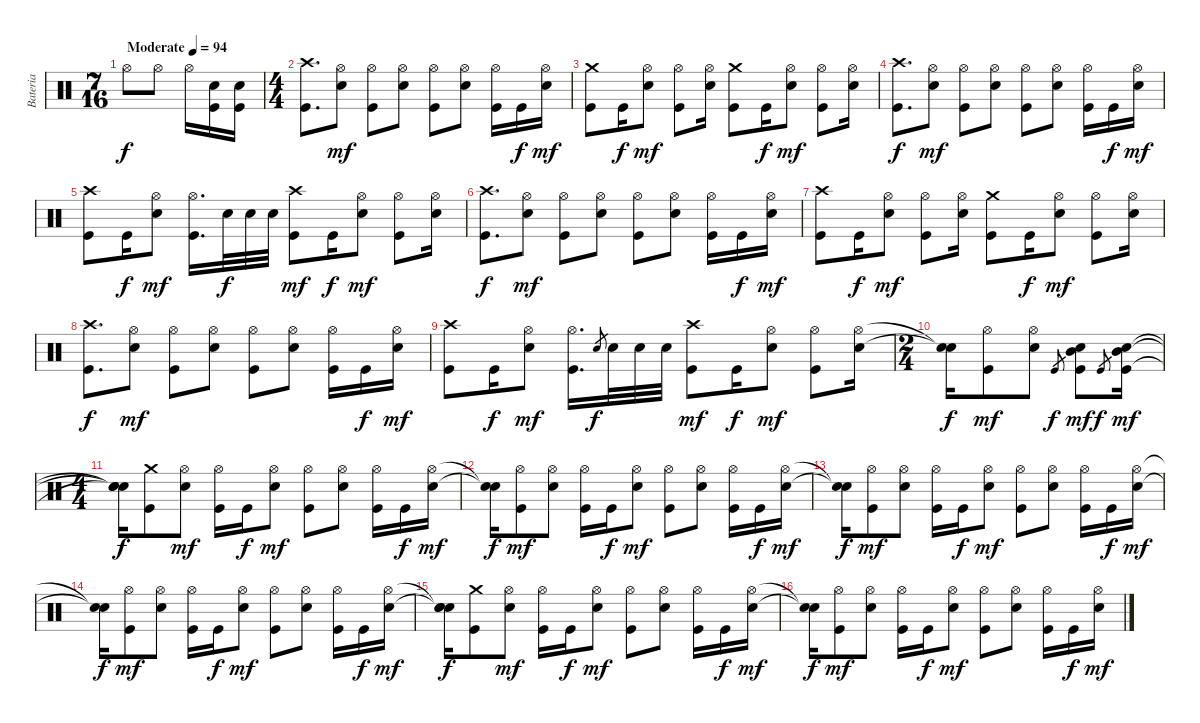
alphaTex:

\track ("Bateria" "Bateria") {instrument percussion}
\staff {score}
\articulation defaults
\ts (7 16)
\tempo (94 "Moderate")
\clef neutral
\ks c "Hi-Hat (open)".8{dy f} "Hi-Hat (open)".8 "Hi-Hat (open)".16
("Snare (hit) 2" "Kick (hit)").16 ("Snare (hit) 2" "Kick (hit)").16 |
\ts (4 4)
("Crash high (hit)" "Kick (hit)").8{d} ("Hi-Hat (open)" "Snare (hit) 2").8{dy mf} ("Hi-Hat (open)" "Kick (hit)").8 ("Hi-Hat (open)" "Snare (hit) 2").8 ("Hi-Hat (open)" "Kick (hit)").8 ("Hi-Hat (open)" "Snare (hit) 2").8 ("Hi-Hat (open)" "Kick (hit)").16 "Kick (hit)".16{dy f} ("Hi-Hat (open)" "Snare (hit) 2").16{dy mf} |
("Crash medium (hit)" "Kick (hit)").8 "Kick (hit)".16{dy f} ("Hi-Hat (open)" "Snare (hit) 2").8{dy mf} ("Hi-Hat (open)" "Kick (hit)").8 ("Hi-Hat (open)" "Snare (hit) 2").16 ("Crash medium (hit)" "Kick (hit)").8 "Kick (hit)".16{dy f} ("Hi-Hat (open)" "Snare (hit) 2").8{dy mf} ("Hi-Hat (open)" "Kick (hit)").8 ("Hi-Hat (open)" "Snare (hit) 2").16 |
("Crash high (hit)" "Kick (hit)").8{d dy f} ("Hi-Hat (open)" "Snare (hit) 2").8{dy mf} ("Hi-Hat (open)" "Kick (hit)").8 ("Hi-Hat (open)" "Snare (hit) 2").8 ("Hi-Hat (open)" "Kick (hit)").8 ("Hi-Hat (open)" "Snare (hit) 2").8 ("Hi-Hat (open)" "Kick (hit)").16 "Kick (hit)".16{dy f} ("Hi-Hat (open)" "Snare (hit) 2").16{dy mf} |
("Crash high (hit)" "Kick (hit)").8 "Kick (hit)".16{dy f} ("Hi-Hat (open)" "Snare (hit) 2").8{dy mf} ("Hi-Hat (open)" "Kick (hit)").16{d} "Snare (hit) 2".32{dy f} "Snare (hit) 2".32 "Snare (hit) 2".32 ("Crash high (hit)" "Kick (hit)").8{dy mf} "Kick (hit)".16{dy f} ("Hi-Hat (open)" "Snare (hit) 2").8{dy mf} ("Hi-Hat (open)" "Kick (hit)").8 ("Hi-Hat (open)" "Snare (hit) 2").16 |
("Crash high (hit)" "Kick (hit)").8{d dy f} ("Hi-Hat (open)" "Snare (hit) 2").8{dy mf} ("Hi-Hat (open)" "Kick (hit)").8 ("Hi-Hat (open)" "Snare (hit) 2").8 ("Hi-Hat (open)" "Kick (hit)").8 ("Hi-Hat (open)" "Snare (hit) 2").8 ("Hi-Hat (open)" "Kick (hit)").16 "Kick (hit)".16{dy f} ("Hi-Hat (open)" "Snare (hit) 2").16{dy mf} |
("Crash high (hit)" "Kick (hit)").8 "Kick (hit)".16{dy f} ("Hi-Hat (open)" "Snare (hit) 2").8{dy mf} ("Hi-Hat (open)" "Kick (hit)").8 ("Hi-Hat (open)" "Snare (hit) 2").16 ("Crash medium (hit)" "Kick (hit)").8 "Kick (hit)".16{dy f} ("Hi-Hat (open)" "Snare (hit) 2").8{dy mf} ("Hi-Hat (open)" "Kick (hit)").8 ("Hi-Hat (open)" "Snare (hit) 2").16 |
("Crash high (hit)" "Kick (hit)").8{d dy f} ("Hi-Hat (open)" "Snare (hit) 2").8{dy mf} ("Hi-Hat (open)" "Kick (hit)").8 ("Hi-Hat (open)" "Snare (hit) 2").8 ("Hi-Hat (open)" "Kick (hit)").8 ("Hi-Hat (open)" "Snare (hit) 2").8 ("Hi-Hat (open)" "Kick (hit)").16 "Kick (hit)".16{dy f} ("Hi-Hat (open)" "Snare (hit) 2").16{dy mf} |
("Crash high (hit)" "Kick (hit)").8 "Kick (hit)".16{dy f} ("Hi-Hat (open)" "Snare (hit) 2").8{dy mf} ("Hi-Hat (open)" "Kick (hit)").16{d} "Snare (hit) 2".8{gr dy f} "Snare (hit) 2".32 "Snare (hit) 2".32 "Snare (hit) 2".32 ("Crash high (hit)" "Kick (hit)").8{dy mf} "Kick (hit)".16{dy f} ("Hi-Hat (open)" "Snare (hit) 2").8{dy mf} ("Hi-Hat (open)" "Kick (hit)").8 ("Hi-Hat (open)" "Snare (hit) 2").16 |
\ts (2 4)
("Snare (hit)"{t} "Snare (hit)"{t}).16{dy f} ("Hi-Hat (open)" "Kick (hit)").8{dy mf} ("Hi-Hat (open)" "Snare (hit) 2").8 "Kick (hit)".8{gr dy f} ("Mid Tom (hit)" "Snare (hit) 2" "Kick (hit)").8{dy mf} "Kick (hit)".8{gr dy f} ("Mid Tom (hit)" "Snare (hit) 2" "Kick (hit)").16{dy mf} |
\ts (4 4)
("Snare (hit)"{t} "Snare (hit)"{t} "Snare (hit)"{t}).16{dy f} ("Crash medium (hit)" "Kick (hit)").8 ("Hi-Hat (open)" "Snare (hit) 2").8{dy mf} ("Hi-Hat (open)" "Kick (hit)").16 "Kick (hit)".16{dy f} ("Hi-Hat (open)" "Snare (hit) 2").8{dy mf} ("Hi-Hat (open)" "Kick (hit)").8 ("Hi-Hat (open)" "Snare (hit) 2").8 ("Hi-Hat (open)" "Kick (hit)").16 "Kick (hit)".16{dy f} ("Hi-Hat (open)" "Snare (hit) 2").16{dy mf} |
("Snare (hit)"{t} "Snare (hit)"{t}).16{dy f} ("Hi-Hat (open)" "Kick (hit)").8{dy mf} ("Hi-Hat (open)" "Snare (hit) 2").8 ("Hi-Hat (open)" "Kick (hit)").16 "Kick (hit)".16{dy f} ("Hi-Hat (open)" "Snare (hit) 2").8{dy mf} ("Hi-Hat (open)" "Kick (hit)").8 ("Hi-Hat (open)" "Snare (hit) 2").8 ("Hi-Hat (open)" "Kick (hit)").16 "Kick (hit)".16{dy f} ("Hi-Hat (open)" "Snare (hit) 2").16{dy mf} |
("Snare (hit)"{t} "Snare (hit)"{t}).16{dy f} ("Hi-Hat (open)" "Kick (hit)").8{dy mf} ("Hi-Hat (open)" "Snare (hit) 2").8 ("Hi-Hat (open)" "Kick (hit)").16 "Kick (hit)".16{dy f} ("Hi-Hat (open)" "Snare (hit) 2").8{dy mf} ("Hi-Hat (open)" "Kick (hit)").8 ("Hi-Hat (open)" "Snare (hit) 2").8 ("Hi-Hat (open)" "Kick (hit)").16 "Kick (hit)".16{dy f} ("Hi-Hat (open)" "Snare (hit) 2").16{dy mf} |
("Snare (hit)"{t} "Snare (hit)"{t}).16{dy f} ("Hi-Hat (open)" "Kick (hit)").8{dy mf} ("Hi-Hat (open)" "Snare (hit) 2").8 ("Hi-Hat (open)" "Kick (hit)").16 "Kick (hit)".16{dy f} ("Hi-Hat (open)" "Snare (hit) 2").8{dy mf} ("Hi-Hat (open)" "Kick (hit)").8 ("Hi-Hat (open)" "Snare (hit) 2").8 ("Hi-Hat (open)" "Kick (hit)").16 "Kick (hit)".16{dy f} ("Hi-Hat (open)" "Snare (hit) 2").16{dy mf} |
("Snare (hit)"{t} "Snare (hit)"{t} "Snare (hit)").16{dy f} ("Crash medium (hit)" "Kick (hit)").8 ("Hi-Hat (open)" "Snare (hit) 2").8{dy mf} ("Hi-Hat (open)" "Kick (hit)").16 "Kick (hit)".16{dy f} ("Hi-Hat (open)" "Snare (hit) 2").8{dy mf} ("Hi-Hat (open)" "Kick (hit)").8 ("Hi-Hat (open)" "Snare (hit) 2").8 ("Hi-Hat (open)" "Kick (hit)").16 "Kick (hit)".16{dy f} ("Hi-Hat (open)" "Snare (hit) 2").16{dy mf} |
("Snare (hit)"{t} "Snare (hit)"{t}).16{dy f} ("Hi-Hat (open)" "Kick (hit)").8{dy mf} ("Hi-Hat (open)" "Snare (hit) 2").8 ("Hi-Hat (open)" "Kick (hit)").16 "Kick (hit)".16{dy f} ("Hi-Hat (open)" "Snare (hit) 2").8{dy mf} ("Hi-Hat (open)" "Kick (hit)").8 ("Hi-Hat (open)" "Snare (hit) 2").8 ("Hi-Hat (open)" "Kick (hit)").16 "Kick (hit)".16{dy f} ("Hi-Hat (open)" "Snare (hit) 2").16{dy mf}
